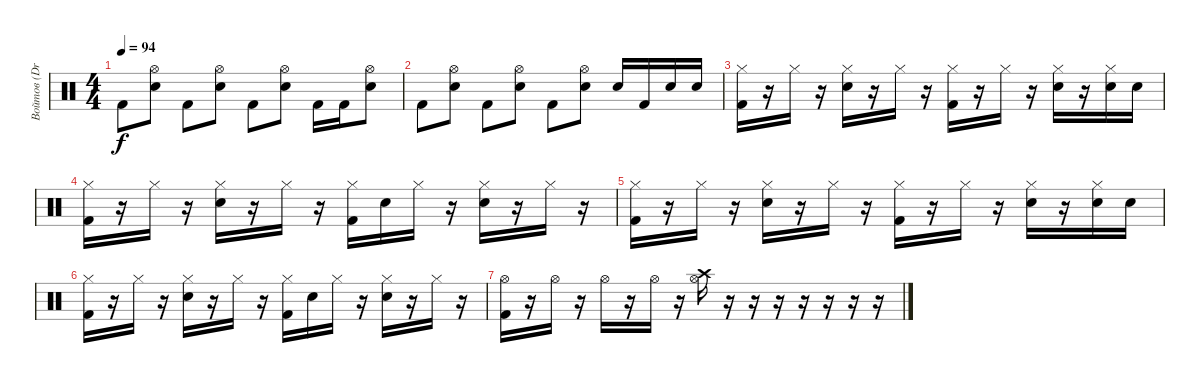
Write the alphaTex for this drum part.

\track ("Войтов (Drums)" "Войтов (Dr") {instrument percussion}
\staff {score}
\articulation defaults
\ts (4 4)
\tempo 94
\clef neutral
\ks c "Kick (hit) 2".8{dy f}
("Electric Snare (hit)" "Hi-Hat (open)").8 "Kick (hit) 2".8 ("Electric Snare (hit)" "Hi-Hat (open)").8 "Kick (hit) 2".8 ("Electric Snare (hit)" "Hi-Hat (open)").8 "Kick (hit) 2".16 "Kick (hit) 2".16 ("Electric Snare (hit)" "Hi-Hat (open)").8 |
"Kick (hit) 2".8 ("Electric Snare (hit)" "Hi-Hat (open)").8 "Kick (hit) 2".8 ("Electric Snare (hit)" "Hi-Hat (open)").8 "Kick (hit) 2".8 ("Electric Snare (hit)" "Hi-Hat (open)").8 "Electric Snare (hit)".16 "Kick (hit) 2".16 "Electric Snare (hit)".16 "Electric Snare (hit)".16 |
("Kick (hit) 2" "Hi-Hat (closed)").16 r.16 "Hi-Hat (closed)".16 r.16 ("Electric Snare (hit)" "Hi-Hat (closed)").16 r.16 "Hi-Hat (closed)".16 r.16 ("Kick (hit) 2" "Hi-Hat (closed)").16 r.16 "Hi-Hat (closed)".16 r.16 ("Electric Snare (hit)" "Hi-Hat (closed)").16 r.16 ("Electric Snare (hit)" "Hi-Hat (closed)").16 "Electric Snare (hit)".16 |
("Kick (hit) 2" "Hi-Hat (closed)").16 r.16 "Hi-Hat (closed)".16 r.16 ("Electric Snare (hit)" "Hi-Hat (closed)").16 r.16 "Hi-Hat (closed)".16 r.16 ("Kick (hit) 2" "Hi-Hat (closed)").16 "Electric Snare (hit)".16 "Hi-Hat (closed)".16 r.16 ("Electric Snare (hit)" "Hi-Hat (closed)").16 r.16 "Hi-Hat (closed)".16 r.16 |
("Kick (hit) 2" "Hi-Hat (closed)").16 r.16 "Hi-Hat (closed)".16 r.16 ("Electric Snare (hit)" "Hi-Hat (closed)").16 r.16 "Hi-Hat (closed)".16 r.16 ("Kick (hit) 2" "Hi-Hat (closed)").16 r.16 "Hi-Hat (closed)".16 r.16 ("Electric Snare (hit)" "Hi-Hat (closed)").16 r.16 ("Electric Snare (hit)" "Hi-Hat (closed)").16 "Electric Snare (hit)".16 |
("Kick (hit) 2" "Hi-Hat (closed)").16 r.16 "Hi-Hat (closed)".16 r.16 ("Electric Snare (hit)" "Hi-Hat (closed)").16 r.16 "Hi-Hat (closed)".16 r.16 ("Kick (hit) 2" "Hi-Hat (closed)").16 "Electric Snare (hit)".16 "Hi-Hat (closed)".16 r.16 ("Electric Snare (hit)" "Hi-Hat (closed)").16 r.16 "Hi-Hat (closed)".16 r.16 |
("Kick (hit) 2" "Hi-Hat (open)").16 r.16 "Hi-Hat (open)".16 r.16 "Hi-Hat (open)".16 r.16 "Hi-Hat (open)".16 r.16 ("Crash high (hit)" "Hi-Hat (open)").16 r.16 r.16 r.16 r.16 r.16 r.16 r.16
